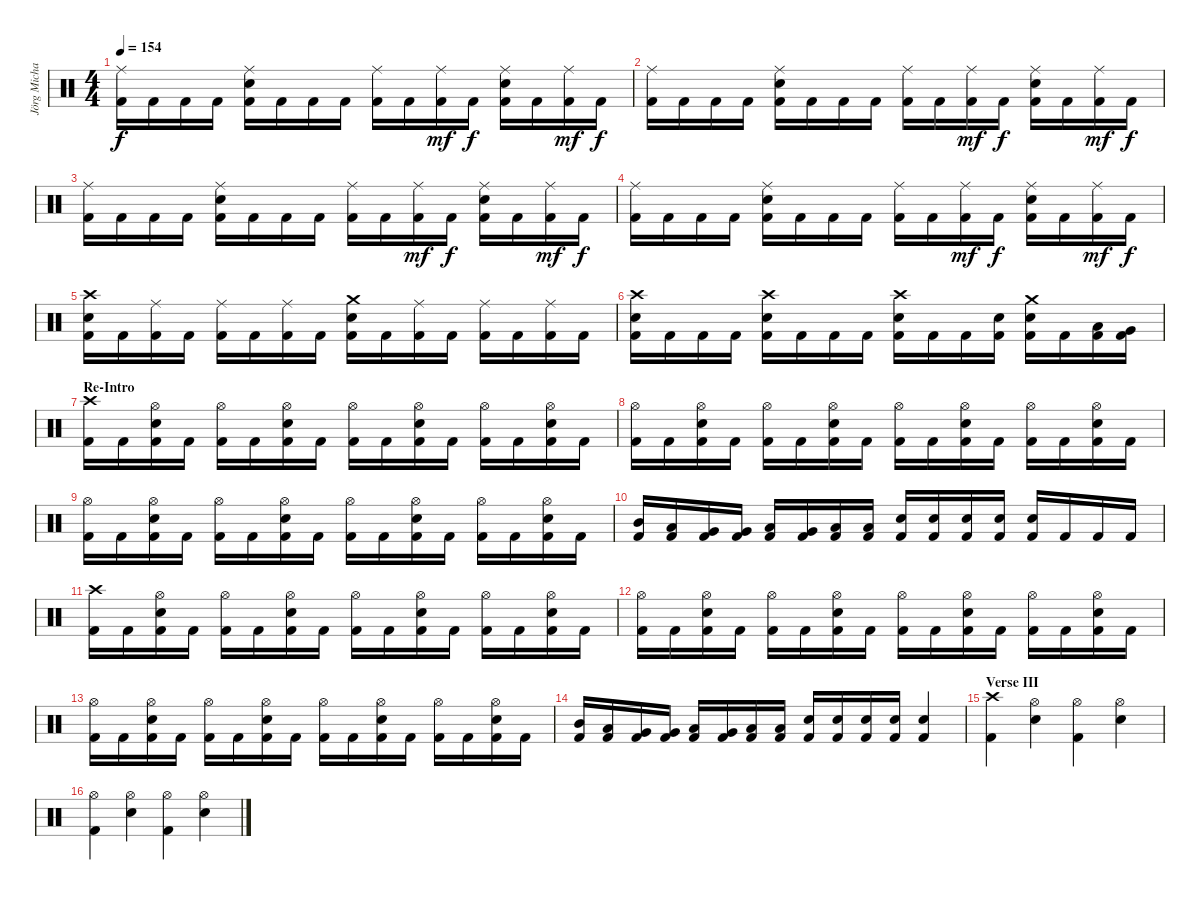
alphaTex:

\track ("Jörg Michael - Drums" "Jörg Micha") {instrument percussion}
\staff {score}
\articulation defaults
\ts (4 4)
\tempo 154
\clef neutral
\ks c
("Ride (middle)" "Kick (hit) 2").16{dy f} "Kick (hit) 2".16 "Kick (hit) 2".16 "Kick (hit) 2".16 ("Ride (middle)" "Electric Snare (hit)" "Kick (hit) 2").16 "Kick (hit) 2".16 "Kick (hit) 2".16 "Kick (hit) 2".16 ("Ride (middle)" "Kick (hit) 2").16 "Kick (hit) 2".16 ("Ride (middle)" "Kick (hit) 2").16{dy mf} "Kick (hit) 2".16{dy f} ("Ride (middle)" "Electric Snare (hit)" "Kick (hit) 2").16 "Kick (hit) 2".16 ("Ride (middle)" "Kick (hit) 2").16{dy mf} "Kick (hit) 2".16{dy f} |
("Ride (middle)" "Kick (hit) 2").16 "Kick (hit) 2".16 "Kick (hit) 2".16 "Kick (hit) 2".16 ("Ride (middle)" "Electric Snare (hit)" "Kick (hit) 2").16 "Kick (hit) 2".16 "Kick (hit) 2".16 "Kick (hit) 2".16 ("Ride (middle)" "Kick (hit) 2").16 "Kick (hit) 2".16 ("Ride (middle)" "Kick (hit) 2").16{dy mf} "Kick (hit) 2".16{dy f} ("Ride (middle)" "Electric Snare (hit)" "Kick (hit) 2").16 "Kick (hit) 2".16 ("Ride (middle)" "Kick (hit) 2").16{dy mf} "Kick (hit) 2".16{dy f} |
("Ride (middle)" "Kick (hit) 2").16 "Kick (hit) 2".16 "Kick (hit) 2".16 "Kick (hit) 2".16 ("Ride (middle)" "Electric Snare (hit)" "Kick (hit) 2").16 "Kick (hit) 2".16 "Kick (hit) 2".16 "Kick (hit) 2".16 ("Ride (middle)" "Kick (hit) 2").16 "Kick (hit) 2".16 ("Ride (middle)" "Kick (hit) 2").16{dy mf} "Kick (hit) 2".16{dy f} ("Ride (middle)" "Electric Snare (hit)" "Kick (hit) 2").16 "Kick (hit) 2".16 ("Ride (middle)" "Kick (hit) 2").16{dy mf} "Kick (hit) 2".16{dy f} |
("Ride (middle)" "Kick (hit) 2").16 "Kick (hit) 2".16 "Kick (hit) 2".16 "Kick (hit) 2".16 ("Ride (middle)" "Electric Snare (hit)" "Kick (hit) 2").16 "Kick (hit) 2".16 "Kick (hit) 2".16 "Kick (hit) 2".16 ("Ride (middle)" "Kick (hit) 2").16 "Kick (hit) 2".16 ("Ride (middle)" "Kick (hit) 2").16{dy mf} "Kick (hit) 2".16{dy f} ("Ride (middle)" "Electric Snare (hit)" "Kick (hit) 2").16 "Kick (hit) 2".16 ("Ride (middle)" "Kick (hit) 2").16{dy mf} "Kick (hit) 2".16{dy f} |
("Crash high (hit)" "Electric Snare (hit)" "Kick (hit) 2").16 "Kick (hit) 2".16 ("Ride (middle)" "Kick (hit) 2").16 "Kick (hit) 2".16 ("Ride (middle)" "Kick (hit) 2").16 "Kick (hit) 2".16 ("Ride (middle)" "Kick (hit) 2").16 "Kick (hit) 2".16 ("Crash medium (hit)" "Electric Snare (hit)" "Kick (hit) 2").16 "Kick (hit) 2".16 ("Ride (middle)" "Kick (hit) 2").16 "Kick (hit) 2".16 ("Ride (middle)" "Kick (hit) 2").16 "Kick (hit) 2".16 ("Ride (middle)" "Kick (hit) 2").16 "Kick (hit) 2".16 |
("Crash high (hit)" "Electric Snare (hit)" "Kick (hit) 2").16 "Kick (hit) 2".16 "Kick (hit) 2".16 "Kick (hit) 2".16 ("Crash high (hit)" "Electric Snare (hit)" "Kick (hit) 2").16 "Kick (hit) 2".16 "Kick (hit) 2".16 "Kick (hit) 2".16 ("Crash high (hit)" "Electric Snare (hit)" "Kick (hit) 2").16 "Kick (hit) 2".16 "Kick (hit) 2".16 ("Electric Snare (hit)" "Kick (hit) 2").16 ("Crash medium (hit)" "Electric Snare (hit)" "Kick (hit) 2").16 "Kick (hit) 2".16 ("Low Tom (hit)" "Kick (hit) 2").16 ("Very Low Tom (hit)" "Kick (hit) 2").16 |
\section ("" "Re-Intro")
("Crash high (hit)" "Kick (hit) 2").16 "Kick (hit) 2".16 ("Hi-Hat (open)" "Electric Snare (hit)" "Kick (hit) 2").16 "Kick (hit) 2".16 ("Hi-Hat (open)" "Kick (hit) 2").16 "Kick (hit) 2".16 ("Hi-Hat (open)" "Electric Snare (hit)" "Kick (hit) 2").16 "Kick (hit) 2".16 ("Hi-Hat (open)" "Kick (hit) 2").16 "Kick (hit) 2".16 ("Hi-Hat (open)" "Electric Snare (hit)" "Kick (hit) 2").16 "Kick (hit) 2".16 ("Hi-Hat (open)" "Kick (hit) 2").16 "Kick (hit) 2".16 ("Hi-Hat (open)" "Electric Snare (hit)" "Kick (hit) 2").16 "Kick (hit) 2".16 |
("Hi-Hat (open)" "Kick (hit) 2").16 "Kick (hit) 2".16 ("Hi-Hat (open)" "Electric Snare (hit)" "Kick (hit) 2").16 "Kick (hit) 2".16 ("Hi-Hat (open)" "Kick (hit) 2").16 "Kick (hit) 2".16 ("Hi-Hat (open)" "Electric Snare (hit)" "Kick (hit) 2").16 "Kick (hit) 2".16 ("Hi-Hat (open)" "Kick (hit) 2").16 "Kick (hit) 2".16 ("Hi-Hat (open)" "Electric Snare (hit)" "Kick (hit) 2").16 "Kick (hit) 2".16 ("Hi-Hat (open)" "Kick (hit) 2").16 "Kick (hit) 2".16 ("Hi-Hat (open)" "Electric Snare (hit)" "Kick (hit) 2").16 "Kick (hit) 2".16 |
("Hi-Hat (open)" "Kick (hit) 2").16 "Kick (hit) 2".16 ("Hi-Hat (open)" "Electric Snare (hit)" "Kick (hit) 2").16 "Kick (hit) 2".16 ("Hi-Hat (open)" "Kick (hit) 2").16 "Kick (hit) 2".16 ("Hi-Hat (open)" "Electric Snare (hit)" "Kick (hit) 2").16 "Kick (hit) 2".16 ("Hi-Hat (open)" "Kick (hit) 2").16 "Kick (hit) 2".16 ("Hi-Hat (open)" "Electric Snare (hit)" "Kick (hit) 2").16 "Kick (hit) 2".16 ("Hi-Hat (open)" "Kick (hit) 2").16 "Kick (hit) 2".16 ("Hi-Hat (open)" "Electric Snare (hit)" "Kick (hit) 2").16 "Kick (hit) 2".16 |
("Mid Tom (hit)" "Kick (hit) 2").16 ("Low Tom (hit)" "Kick (hit) 2").16 ("Very Low Tom (hit)" "Kick (hit) 2").16 ("Very Low Tom (hit)" "Kick (hit) 2").16 ("Low Tom (hit)" "Kick (hit) 2").16 ("Very Low Tom (hit)" "Kick (hit) 2").16 ("Low Floor Tom (hit)" "Kick (hit) 2").16 ("Low Floor Tom (hit)" "Kick (hit) 2").16 ("Electric Snare (hit)" "Kick (hit) 2").16 ("Electric Snare (hit)" "Kick (hit) 2").16 ("Electric Snare (hit)" "Kick (hit) 2").16 ("Electric Snare (hit)" "Kick (hit) 2").16 ("Electric Snare (hit)" "Kick (hit) 2").16 "Kick (hit) 2".16 "Kick (hit) 2".16 "Kick (hit) 2".16 |
("Crash high (hit)" "Kick (hit) 2").16 "Kick (hit) 2".16 ("Hi-Hat (open)" "Electric Snare (hit)" "Kick (hit) 2").16 "Kick (hit) 2".16 ("Hi-Hat (open)" "Kick (hit) 2").16 "Kick (hit) 2".16 ("Hi-Hat (open)" "Electric Snare (hit)" "Kick (hit) 2").16 "Kick (hit) 2".16 ("Hi-Hat (open)" "Kick (hit) 2").16 "Kick (hit) 2".16 ("Hi-Hat (open)" "Electric Snare (hit)" "Kick (hit) 2").16 "Kick (hit) 2".16 ("Hi-Hat (open)" "Kick (hit) 2").16 "Kick (hit) 2".16 ("Hi-Hat (open)" "Electric Snare (hit)" "Kick (hit) 2").16 "Kick (hit) 2".16 |
("Hi-Hat (open)" "Kick (hit) 2").16 "Kick (hit) 2".16 ("Hi-Hat (open)" "Electric Snare (hit)" "Kick (hit) 2").16 "Kick (hit) 2".16 ("Hi-Hat (open)" "Kick (hit) 2").16 "Kick (hit) 2".16 ("Hi-Hat (open)" "Electric Snare (hit)" "Kick (hit) 2").16 "Kick (hit) 2".16 ("Hi-Hat (open)" "Kick (hit) 2").16 "Kick (hit) 2".16 ("Hi-Hat (open)" "Electric Snare (hit)" "Kick (hit) 2").16 "Kick (hit) 2".16 ("Hi-Hat (open)" "Kick (hit) 2").16 "Kick (hit) 2".16 ("Hi-Hat (open)" "Electric Snare (hit)" "Kick (hit) 2").16 "Kick (hit) 2".16 |
("Hi-Hat (open)" "Kick (hit) 2").16 "Kick (hit) 2".16 ("Hi-Hat (open)" "Electric Snare (hit)" "Kick (hit) 2").16 "Kick (hit) 2".16 ("Hi-Hat (open)" "Kick (hit) 2").16 "Kick (hit) 2".16 ("Hi-Hat (open)" "Electric Snare (hit)" "Kick (hit) 2").16 "Kick (hit) 2".16 ("Hi-Hat (open)" "Kick (hit) 2").16 "Kick (hit) 2".16 ("Hi-Hat (open)" "Electric Snare (hit)" "Kick (hit) 2").16 "Kick (hit) 2".16 ("Hi-Hat (open)" "Kick (hit) 2").16 "Kick (hit) 2".16 ("Hi-Hat (open)" "Electric Snare (hit)" "Kick (hit) 2").16 "Kick (hit) 2".16 |
("Mid Tom (hit)" "Kick (hit) 2").16 ("Low Tom (hit)" "Kick (hit) 2").16 ("Very Low Tom (hit)" "Kick (hit) 2").16 ("Very Low Tom (hit)" "Kick (hit) 2").16 ("Low Tom (hit)" "Kick (hit) 2").16 ("Very Low Tom (hit)" "Kick (hit) 2").16 ("Low Floor Tom (hit)" "Kick (hit) 2").16 ("Low Floor Tom (hit)" "Kick (hit) 2").16 ("Electric Snare (hit)" "Kick (hit) 2").16 ("Electric Snare (hit)" "Kick (hit) 2").16 ("Electric Snare (hit)" "Kick (hit) 2").16 ("Electric Snare (hit)" "Kick (hit) 2").16 ("Electric Snare (hit)" "Kick (hit) 2").4 |
\section ("" "Verse III")
("Crash high (hit)" "Kick (hit) 2").4 ("Hi-Hat (open)" "Electric Snare (hit)").4 ("Hi-Hat (open)" "Kick (hit) 2").4 ("Hi-Hat (open)" "Electric Snare (hit)").4 |
("Hi-Hat (open)" "Kick (hit) 2").4 ("Hi-Hat (open)" "Electric Snare (hit)").4 ("Hi-Hat (open)" "Kick (hit) 2").4 ("Hi-Hat (open)" "Electric Snare (hit)").4
